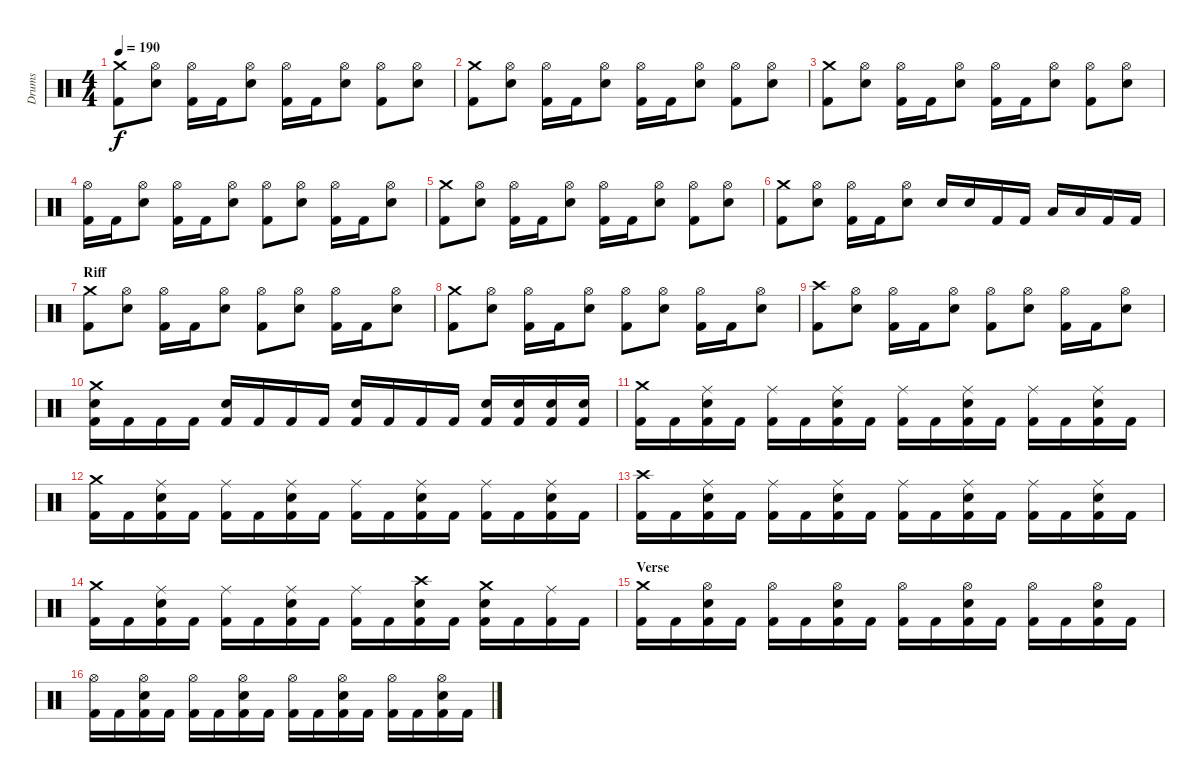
\track ("Drums" "Drums") {instrument percussion}
\staff {score}
\articulation defaults
\ts (4 4)
\tempo 190
\clef neutral
\ks c
("Crash medium (hit)" "Kick (hit) 2").8{dy f} ("Hi-Hat (open)" "Snare (hit) 2").8 ("Hi-Hat (open)" "Kick (hit) 2").16 "Kick (hit) 2".16 ("Hi-Hat (open)" "Snare (hit) 2").8 ("Hi-Hat (open)" "Kick (hit) 2").16 "Kick (hit) 2".16 ("Hi-Hat (open)" "Snare (hit) 2").8 ("Hi-Hat (open)" "Kick (hit) 2").8 ("Hi-Hat (open)" "Snare (hit) 2").8 |
("Crash medium (hit)" "Kick (hit) 2").8 ("Hi-Hat (open)" "Snare (hit) 2").8 ("Hi-Hat (open)" "Kick (hit) 2").16 "Kick (hit) 2".16 ("Hi-Hat (open)" "Snare (hit) 2").8 ("Hi-Hat (open)" "Kick (hit) 2").16 "Kick (hit) 2".16 ("Hi-Hat (open)" "Snare (hit) 2").8 ("Hi-Hat (open)" "Kick (hit) 2").8 ("Hi-Hat (open)" "Snare (hit) 2").8 |
("Crash medium (hit)" "Kick (hit) 2").8 ("Hi-Hat (open)" "Snare (hit) 2").8 ("Hi-Hat (open)" "Kick (hit) 2").16 "Kick (hit) 2".16 ("Hi-Hat (open)" "Snare (hit) 2").8 ("Hi-Hat (open)" "Kick (hit) 2").16 "Kick (hit) 2".16 ("Hi-Hat (open)" "Snare (hit) 2").8 ("Hi-Hat (open)" "Kick (hit) 2").8 ("Hi-Hat (open)" "Snare (hit) 2").8 |
("Hi-Hat (open)" "Kick (hit) 2").16 "Kick (hit) 2".16 ("Hi-Hat (open)" "Snare (hit) 2").8 ("Hi-Hat (open)" "Kick (hit) 2").16 "Kick (hit) 2".16 ("Hi-Hat (open)" "Snare (hit) 2").8 ("Hi-Hat (open)" "Kick (hit) 2").8 ("Hi-Hat (open)" "Snare (hit) 2").8 ("Hi-Hat (open)" "Kick (hit) 2").16 "Kick (hit) 2".16 ("Hi-Hat (open)" "Snare (hit) 2").8 |
("Crash medium (hit)" "Kick (hit) 2").8 ("Hi-Hat (open)" "Snare (hit) 2").8 ("Hi-Hat (open)" "Kick (hit) 2").16 "Kick (hit) 2".16 ("Hi-Hat (open)" "Snare (hit) 2").8 ("Hi-Hat (open)" "Kick (hit) 2").16 "Kick (hit) 2".16 ("Hi-Hat (open)" "Snare (hit) 2").8 ("Hi-Hat (open)" "Kick (hit) 2").8 ("Hi-Hat (open)" "Snare (hit) 2").8 |
("Crash medium (hit)" "Kick (hit) 2").8 ("Hi-Hat (open)" "Snare (hit) 2").8 ("Hi-Hat (open)" "Kick (hit) 2").16 "Kick (hit) 2".16 ("Hi-Hat (open)" "Snare (hit) 2").8 "Snare (hit) 2".16 "Snare (hit) 2".16 "Kick (hit) 2".16 "Kick (hit) 2".16 "Low Tom (hit)".16 "Low Tom (hit)".16 "Kick (hit) 2".16 "Kick (hit) 2".16 |
\section ("" "Riff")
("Crash medium (hit)" "Kick (hit) 2").8 ("Hi-Hat (open)" "Snare (hit) 2").8 ("Hi-Hat (open)" "Kick (hit) 2").16 "Kick (hit) 2".16 ("Hi-Hat (open)" "Snare (hit) 2").8 ("Hi-Hat (open)" "Kick (hit) 2").8 ("Hi-Hat (open)" "Snare (hit) 2").8 ("Hi-Hat (open)" "Kick (hit) 2").16 "Kick (hit) 2".16 ("Hi-Hat (open)" "Snare (hit) 2").8 |
("Crash medium (hit)" "Kick (hit) 2").8 ("Hi-Hat (open)" "Snare (hit) 2").8 ("Hi-Hat (open)" "Kick (hit) 2").16 "Kick (hit) 2".16 ("Hi-Hat (open)" "Snare (hit) 2").8 ("Hi-Hat (open)" "Kick (hit) 2").8 ("Hi-Hat (open)" "Snare (hit) 2").8 ("Hi-Hat (open)" "Kick (hit) 2").16 "Kick (hit) 2".16 ("Hi-Hat (open)" "Snare (hit) 2").8 |
("Crash high (hit)" "Kick (hit) 2").8 ("Hi-Hat (open)" "Snare (hit) 2").8 ("Hi-Hat (open)" "Kick (hit) 2").16 "Kick (hit) 2".16 ("Hi-Hat (open)" "Snare (hit) 2").8 ("Hi-Hat (open)" "Kick (hit) 2").8 ("Hi-Hat (open)" "Snare (hit) 2").8 ("Hi-Hat (open)" "Kick (hit) 2").16 "Kick (hit) 2".16 ("Hi-Hat (open)" "Snare (hit) 2").8 |
("Crash medium (hit)" "Snare (hit) 2" "Kick (hit) 2").16 "Kick (hit) 2".16 "Kick (hit) 2".16 "Kick (hit) 2".16 ("Snare (hit) 2" "Kick (hit) 2").16 "Kick (hit) 2".16 "Kick (hit) 2".16 "Kick (hit) 2".16 ("Snare (hit) 2" "Kick (hit) 2").16 "Kick (hit) 2".16 "Kick (hit) 2".16 "Kick (hit) 2".16 ("Snare (hit) 2" "Kick (hit) 2").16 ("Snare (hit) 2" "Kick (hit) 2").16 ("Snare (hit) 2" "Kick (hit) 2").16 ("Snare (hit) 2" "Kick (hit) 2").16 |
("Crash medium (hit)" "Kick (hit) 2").16 "Kick (hit) 2".16 ("Ride (middle)" "Snare (hit) 2" "Kick (hit) 2").16 "Kick (hit) 2".16 ("Ride (middle)" "Kick (hit) 2").16 "Kick (hit) 2".16 ("Ride (middle)" "Snare (hit) 2" "Kick (hit) 2").16 "Kick (hit) 2".16 ("Ride (middle)" "Kick (hit) 2").16 "Kick (hit) 2".16 ("Ride (middle)" "Snare (hit) 2" "Kick (hit) 2").16 "Kick (hit) 2".16 ("Ride (middle)" "Kick (hit) 2").16 "Kick (hit) 2".16 ("Ride (middle)" "Snare (hit) 2" "Kick (hit) 2").16 "Kick (hit) 2".16 |
("Crash medium (hit)" "Kick (hit) 2").16 "Kick (hit) 2".16 ("Ride (middle)" "Snare (hit) 2" "Kick (hit) 2").16 "Kick (hit) 2".16 ("Ride (middle)" "Kick (hit) 2").16 "Kick (hit) 2".16 ("Ride (middle)" "Snare (hit) 2" "Kick (hit) 2").16 "Kick (hit) 2".16 ("Ride (middle)" "Kick (hit) 2").16 "Kick (hit) 2".16 ("Ride (middle)" "Snare (hit) 2" "Kick (hit) 2").16 "Kick (hit) 2".16 ("Ride (middle)" "Kick (hit) 2").16 "Kick (hit) 2".16 ("Ride (middle)" "Snare (hit) 2" "Kick (hit) 2").16 "Kick (hit) 2".16 |
("Crash high (hit)" "Kick (hit) 2").16 "Kick (hit) 2".16 ("Ride (middle)" "Snare (hit) 2" "Kick (hit) 2").16 "Kick (hit) 2".16 ("Ride (middle)" "Kick (hit) 2").16 "Kick (hit) 2".16 ("Ride (middle)" "Snare (hit) 2" "Kick (hit) 2").16 "Kick (hit) 2".16 ("Ride (middle)" "Kick (hit) 2").16 "Kick (hit) 2".16 ("Ride (middle)" "Snare (hit) 2" "Kick (hit) 2").16 "Kick (hit) 2".16 ("Ride (middle)" "Kick (hit) 2").16 "Kick (hit) 2".16 ("Ride (middle)" "Snare (hit) 2" "Kick (hit) 2").16 "Kick (hit) 2".16 |
("Crash medium (hit)" "Kick (hit) 2").16 "Kick (hit) 2".16 ("Ride (middle)" "Snare (hit) 2" "Kick (hit) 2").16 "Kick (hit) 2".16 ("Ride (middle)" "Kick (hit) 2").16 "Kick (hit) 2".16 ("Ride (middle)" "Snare (hit) 2" "Kick (hit) 2").16 "Kick (hit) 2".16 ("Ride (middle)" "Kick (hit) 2").16 "Kick (hit) 2".16 ("Crash high (hit)" "Snare (hit) 2" "Kick (hit) 2").16 "Kick (hit) 2".16 ("Crash medium (hit)" "Snare (hit) 2" "Kick (hit) 2").16 "Kick (hit) 2".16 ("Ride (middle)" "Kick (hit) 2").16 "Kick (hit) 2".16 |
\section ("" "Verse")
("Crash medium (hit)" "Kick (hit) 2").16 "Kick (hit) 2".16 ("Hi-Hat (open)" "Snare (hit) 2" "Kick (hit) 2").16 "Kick (hit) 2".16 ("Hi-Hat (open)" "Kick (hit) 2").16 "Kick (hit) 2".16 ("Hi-Hat (open)" "Snare (hit) 2" "Kick (hit) 2").16 "Kick (hit) 2".16 ("Hi-Hat (open)" "Kick (hit) 2").16 "Kick (hit) 2".16 ("Hi-Hat (open)" "Snare (hit) 2" "Kick (hit) 2").16 "Kick (hit) 2".16 ("Hi-Hat (open)" "Kick (hit) 2").16 "Kick (hit) 2".16 ("Hi-Hat (open)" "Snare (hit) 2" "Kick (hit) 2").16 "Kick (hit) 2".16 |
("Hi-Hat (open)" "Kick (hit) 2").16 "Kick (hit) 2".16 ("Hi-Hat (open)" "Snare (hit) 2" "Kick (hit) 2").16 "Kick (hit) 2".16 ("Hi-Hat (open)" "Kick (hit) 2").16 "Kick (hit) 2".16 ("Hi-Hat (open)" "Snare (hit) 2" "Kick (hit) 2").16 "Kick (hit) 2".16 ("Hi-Hat (open)" "Kick (hit) 2").16 "Kick (hit) 2".16 ("Hi-Hat (open)" "Snare (hit) 2" "Kick (hit) 2").16 "Kick (hit) 2".16 ("Hi-Hat (open)" "Kick (hit) 2").16 "Kick (hit) 2".16 ("Hi-Hat (open)" "Snare (hit) 2" "Kick (hit) 2").16 "Kick (hit) 2".16
